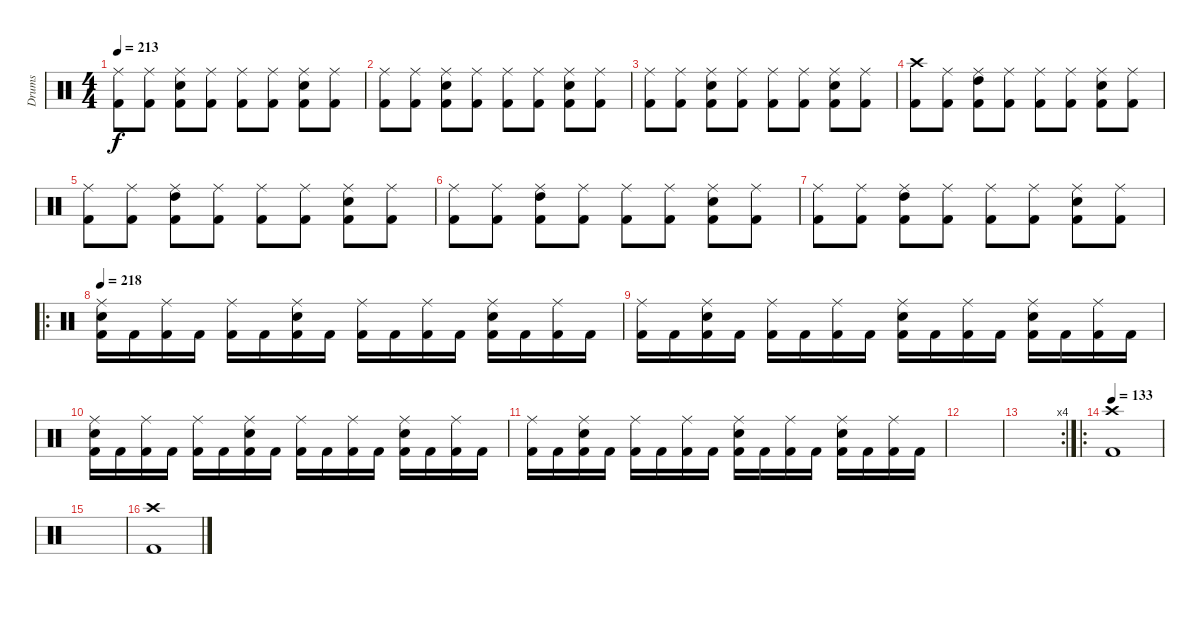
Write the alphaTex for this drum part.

\track ("Drums" "Drums") {instrument percussion}
\staff {score}
\articulation defaults
\ts (4 4)
\tempo 213
\clef neutral
\ks c
("Kick (hit) 2" "Ride (middle)").8{dy f} ("Kick (hit) 2" "Ride (middle)").8 ("Kick (hit) 2" "Snare (hit) 2" "Ride (middle)").8 ("Kick (hit) 2" "Ride (middle)").8 ("Kick (hit) 2" "Ride (middle)").8 ("Kick (hit) 2" "Ride (middle)").8 ("Kick (hit) 2" "Snare (hit) 2" "Ride (middle)").8 ("Kick (hit) 2" "Ride (middle)").8 |
("Kick (hit) 2" "Ride (middle)").8 ("Kick (hit) 2" "Ride (middle)").8 ("Kick (hit) 2" "Snare (hit) 2" "Ride (middle)").8 ("Kick (hit) 2" "Ride (middle)").8 ("Kick (hit) 2" "Ride (middle)").8 ("Kick (hit) 2" "Ride (middle)").8 ("Kick (hit) 2" "Snare (hit) 2" "Ride (middle)").8 ("Kick (hit) 2" "Ride (middle)").8 |
("Kick (hit) 2" "Ride (middle)").8 ("Kick (hit) 2" "Ride (middle)").8 ("Kick (hit) 2" "Snare (hit) 2" "Ride (middle)").8 ("Kick (hit) 2" "Ride (middle)").8 ("Kick (hit) 2" "Ride (middle)").8 ("Kick (hit) 2" "Ride (middle)").8 ("Kick (hit) 2" "Snare (hit) 2" "Ride (middle)").8 ("Kick (hit) 2" "Ride (middle)").8 |
("Kick (hit) 2" "Crash high (hit)").8 ("Kick (hit) 2" "Ride (middle)").8 ("Kick (hit) 2" "High Tom (hit)" "Ride (middle)").8 ("Kick (hit) 2" "Ride (middle)").8 ("Kick (hit) 2" "Ride (middle)").8 ("Kick (hit) 2" "Ride (middle)").8 ("Kick (hit) 2" "Snare (hit) 2" "Ride (middle)").8 ("Kick (hit) 2" "Ride (middle)").8 |
("Kick (hit) 2" "Ride (middle)").8 ("Kick (hit) 2" "Ride (middle)").8 ("Kick (hit) 2" "High Tom (hit)" "Ride (middle)").8 ("Kick (hit) 2" "Ride (middle)").8 ("Kick (hit) 2" "Ride (middle)").8 ("Kick (hit) 2" "Ride (middle)").8 ("Kick (hit) 2" "Snare (hit) 2" "Ride (middle)").8 ("Kick (hit) 2" "Ride (middle)").8 |
("Kick (hit) 2" "Ride (middle)").8 ("Kick (hit) 2" "Ride (middle)").8 ("Kick (hit) 2" "High Tom (hit)" "Ride (middle)").8 ("Kick (hit) 2" "Ride (middle)").8 ("Kick (hit) 2" "Ride (middle)").8 ("Kick (hit) 2" "Ride (middle)").8 ("Kick (hit) 2" "Snare (hit) 2" "Ride (middle)").8 ("Kick (hit) 2" "Ride (middle)").8 |
("Kick (hit) 2" "Ride (middle)").8 ("Kick (hit) 2" "Ride (middle)").8 ("Kick (hit) 2" "High Tom (hit)" "Ride (middle)").8 ("Kick (hit) 2" "Ride (middle)").8 ("Kick (hit) 2" "Ride (middle)").8 ("Kick (hit) 2" "Ride (middle)").8 ("Kick (hit) 2" "Snare (hit) 2" "Ride (middle)").8 ("Kick (hit) 2" "Ride (middle)").8 |
\ro
\tempo 218
("Kick (hit) 2" "Snare (hit) 2" "Ride (middle)").16 "Kick (hit) 2".16 ("Kick (hit) 2" "Ride (middle)").16 "Kick (hit) 2".16 ("Kick (hit) 2" "Ride (middle)").16 "Kick (hit) 2".16 ("Kick (hit) 2" "Snare (hit) 2" "Ride (middle)").16 "Kick (hit) 2".16 ("Kick (hit) 2" "Ride (middle)").16 "Kick (hit) 2".16 ("Kick (hit) 2" "Ride (middle)").16 "Kick (hit) 2".16 ("Kick (hit) 2" "Snare (hit) 2" "Ride (middle)").16 "Kick (hit) 2".16 ("Kick (hit) 2" "Ride (middle)").16 "Kick (hit) 2".16 |
("Kick (hit) 2" "Ride (middle)").16 "Kick (hit) 2".16 ("Kick (hit) 2" "Snare (hit) 2" "Ride (middle)").16 "Kick (hit) 2".16 ("Kick (hit) 2" "Ride (middle)").16 "Kick (hit) 2".16 ("Kick (hit) 2" "Ride (middle)").16 "Kick (hit) 2".16 ("Kick (hit) 2" "Snare (hit) 2" "Ride (middle)").16 "Kick (hit) 2".16 ("Kick (hit) 2" "Ride (middle)").16 "Kick (hit) 2".16 ("Kick (hit) 2" "Snare (hit) 2" "Ride (middle)").16 "Kick (hit) 2".16 ("Kick (hit) 2" "Ride (middle)").16 "Kick (hit) 2".16 |
("Kick (hit) 2" "Snare (hit) 2" "Ride (middle)").16 "Kick (hit) 2".16 ("Kick (hit) 2" "Ride (middle)").16 "Kick (hit) 2".16 ("Kick (hit) 2" "Ride (middle)").16 "Kick (hit) 2".16 ("Kick (hit) 2" "Snare (hit) 2" "Ride (middle)").16 "Kick (hit) 2".16 ("Kick (hit) 2" "Ride (middle)").16 "Kick (hit) 2".16 ("Kick (hit) 2" "Ride (middle)").16 "Kick (hit) 2".16 ("Kick (hit) 2" "Snare (hit) 2" "Ride (middle)").16 "Kick (hit) 2".16 ("Kick (hit) 2" "Ride (middle)").16 "Kick (hit) 2".16 |
("Kick (hit) 2" "Ride (middle)").16 "Kick (hit) 2".16 ("Kick (hit) 2" "Snare (hit) 2" "Ride (middle)").16 "Kick (hit) 2".16 ("Kick (hit) 2" "Ride (middle)").16 "Kick (hit) 2".16 ("Kick (hit) 2" "Ride (middle)").16 "Kick (hit) 2".16 ("Kick (hit) 2" "Snare (hit) 2" "Ride (middle)").16 "Kick (hit) 2".16 ("Kick (hit) 2" "Ride (middle)").16 "Kick (hit) 2".16 ("Kick (hit) 2" "Snare (hit) 2" "Ride (middle)").16 "Kick (hit) 2".16 ("Kick (hit) 2" "Ride (middle)").16 "Kick (hit) 2".16 |
|
\rc 4
|
\ro
\tempo 133
("Kick (hit) 2" "Crash high (hit)").1 |
|
("Kick (hit) 2" "Crash high (hit)").1
